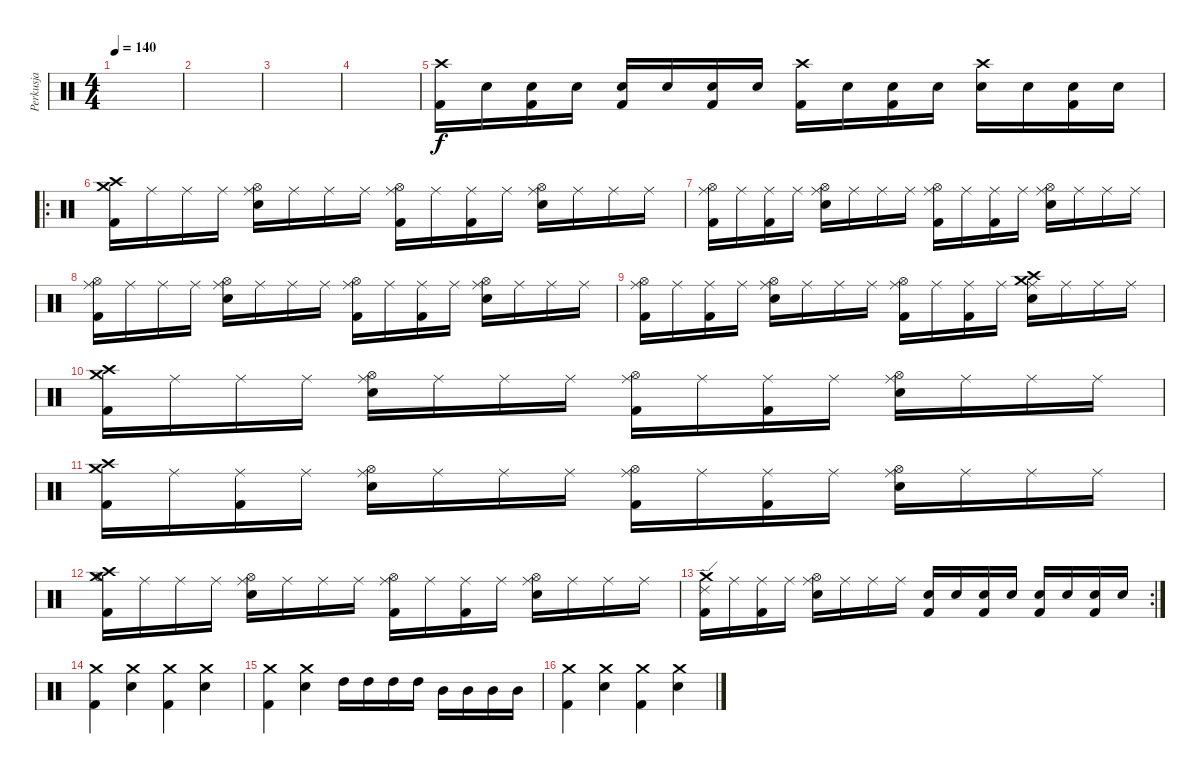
\track ("Perkusja" "Perkusja") {instrument percussion}
\staff {score}
\articulation defaults
\ts (4 4)
\tempo 140
\clef neutral
\ks c
|
|
|
|
("Crash high (hit)" "Kick (hit) 2").16 "Snare (hit) 2".16 ("Kick (hit) 2" "Snare (hit) 2").16 "Snare (hit) 2".16 ("Kick (hit) 2" "Snare (hit) 2").16 "Snare (hit) 2".16 ("Kick (hit) 2" "Snare (hit) 2").16 "Snare (hit) 2".16 ("Crash high (hit)" "Kick (hit) 2").16 "Snare (hit) 2".16 ("Kick (hit) 2" "Snare (hit) 2").16 "Snare (hit) 2".16 ("Crash high (hit)" "Snare (hit) 2").16 "Snare (hit) 2".16 ("Kick (hit) 2" "Snare (hit) 2").16 "Snare (hit) 2".16 |
\ro
("Crash medium (hit)" "Crash high (hit)" "Kick (hit) 2").16 "Ride (middle)".16 "Ride (middle)".16 "Ride (middle)".16 ("Ride (middle)" "Hi-Hat (open)" "Snare (hit) 2").16 "Ride (middle)".16 "Ride (middle)".16 "Ride (middle)".16 ("Ride (middle)" "Hi-Hat (open)" "Kick (hit) 2").16 "Ride (middle)".16 ("Ride (middle)" "Kick (hit) 2").16 "Ride (middle)".16 ("Ride (middle)" "Hi-Hat (open)" "Snare (hit) 2").16 "Ride (middle)".16 "Ride (middle)".16 "Ride (middle)".16 |
("Ride (middle)" "Hi-Hat (open)" "Kick (hit) 2").16 "Ride (middle)".16 ("Ride (middle)" "Kick (hit) 2").16 "Ride (middle)".16 ("Ride (middle)" "Hi-Hat (open)" "Snare (hit) 2").16 "Ride (middle)".16 "Ride (middle)".16 "Ride (middle)".16 ("Ride (middle)" "Hi-Hat (open)" "Kick (hit) 2").16 "Ride (middle)".16 ("Ride (middle)" "Kick (hit) 2").16 "Ride (middle)".16 ("Ride (middle)" "Hi-Hat (open)" "Snare (hit) 2").16 "Ride (middle)".16 "Ride (middle)".16 "Ride (middle)".16 |
("Ride (middle)" "Hi-Hat (open)" "Kick (hit) 2").16 "Ride (middle)".16 "Ride (middle)".16 "Ride (middle)".16 ("Ride (middle)" "Hi-Hat (open)" "Snare (hit) 2").16 "Ride (middle)".16 "Ride (middle)".16 "Ride (middle)".16 ("Ride (middle)" "Hi-Hat (open)" "Kick (hit) 2").16 "Ride (middle)".16 ("Ride (middle)" "Kick (hit) 2").16 "Ride (middle)".16 ("Ride (middle)" "Hi-Hat (open)" "Snare (hit) 2").16 "Ride (middle)".16 "Ride (middle)".16 "Ride (middle)".16 |
("Ride (middle)" "Hi-Hat (open)" "Kick (hit) 2").16 "Ride (middle)".16 ("Ride (middle)" "Kick (hit) 2").16 "Ride (middle)".16 ("Ride (middle)" "Hi-Hat (open)" "Snare (hit) 2").16 "Ride (middle)".16 "Ride (middle)".16 "Ride (middle)".16 ("Ride (middle)" "Hi-Hat (open)" "Kick (hit) 2").16 "Ride (middle)".16 ("Ride (middle)" "Kick (hit) 2").16 "Ride (middle)".16 ("Crash medium (hit)" "Crash high (hit)" "Ride (middle)" "Snare (hit) 2").16 "Ride (middle)".16 "Ride (middle)".16 "Ride (middle)".16 |
("Crash medium (hit)" "Crash high (hit)" "Kick (hit) 2").16 "Ride (middle)".16 "Ride (middle)".16 "Ride (middle)".16 ("Ride (middle)" "Hi-Hat (open)" "Snare (hit) 2").16 "Ride (middle)".16 "Ride (middle)".16 "Ride (middle)".16 ("Ride (middle)" "Hi-Hat (open)" "Kick (hit) 2").16 "Ride (middle)".16 ("Ride (middle)" "Kick (hit) 2").16 "Ride (middle)".16 ("Ride (middle)" "Hi-Hat (open)" "Snare (hit) 2").16 "Ride (middle)".16 "Ride (middle)".16 "Ride (middle)".16 |
("Crash medium (hit)" "Crash high (hit)" "Kick (hit) 2").16 "Ride (middle)".16 ("Ride (middle)" "Kick (hit) 2").16 "Ride (middle)".16 ("Ride (middle)" "Hi-Hat (open)" "Snare (hit) 2").16 "Ride (middle)".16 "Ride (middle)".16 "Ride (middle)".16 ("Ride (middle)" "Hi-Hat (open)" "Kick (hit) 2").16 "Ride (middle)".16 ("Ride (middle)" "Kick (hit) 2").16 "Ride (middle)".16 ("Ride (middle)" "Hi-Hat (open)" "Snare (hit) 2").16 "Ride (middle)".16 "Ride (middle)".16 "Ride (middle)".16 |
("Crash medium (hit)" "Crash high (hit)" "Hi-Hat (open)" "Kick (hit) 2").16 "Ride (middle)".16 "Ride (middle)".16 "Ride (middle)".16 ("Ride (middle)" "Hi-Hat (open)" "Snare (hit) 2").16 "Ride (middle)".16 "Ride (middle)".16 "Ride (middle)".16 ("Ride (middle)" "Hi-Hat (open)" "Kick (hit) 2").16 "Ride (middle)".16 ("Ride (middle)" "Kick (hit) 2").16 "Ride (middle)".16 ("Ride (middle)" "Hi-Hat (open)" "Snare (hit) 2").16 "Ride (middle)".16 "Ride (middle)".16 "Ride (middle)".16 |
\rc 2
("Crash medium (hit)" "Ride (edge) 2" "Kick (hit) 2").16 "Ride (middle)".16 ("Ride (middle)" "Kick (hit) 2").16 "Ride (middle)".16 ("Ride (middle)" "Hi-Hat (open)" "Snare (hit) 2").16 "Ride (middle)".16 "Ride (middle)".16 "Ride (middle)".16 ("Snare (hit) 2" "Kick (hit) 2").16 "Snare (hit) 2".16 ("Snare (hit) 2" "Kick (hit) 2").16 "Snare (hit) 2".16 ("Snare (hit) 2" "Kick (hit) 2").16 "Snare (hit) 2".16 ("Snare (hit) 2" "Kick (hit) 2").16 "Snare (hit) 2".16 |
("Crash medium (hit)" "Kick (hit) 2").4 ("Crash medium (hit)" "Snare (hit) 2").4 ("Crash medium (hit)" "Kick (hit) 2").4 ("Crash medium (hit)" "Snare (hit) 2").4 |
("Crash medium (hit)" "Kick (hit) 2").4 ("Crash medium (hit)" "Snare (hit) 2").4 "High Tom (hit)".16 "High Tom (hit)".16 "High Tom (hit)".16 "High Tom (hit)".16 "Mid Tom (hit)".16 "Mid Tom (hit)".16 "Mid Tom (hit)".16 "Mid Tom (hit)".16 |
("Crash medium (hit)" "Kick (hit) 2").4 ("Crash medium (hit)" "Snare (hit) 2").4 ("Crash medium (hit)" "Kick (hit) 2").4 ("Crash medium (hit)" "Snare (hit) 2").4
